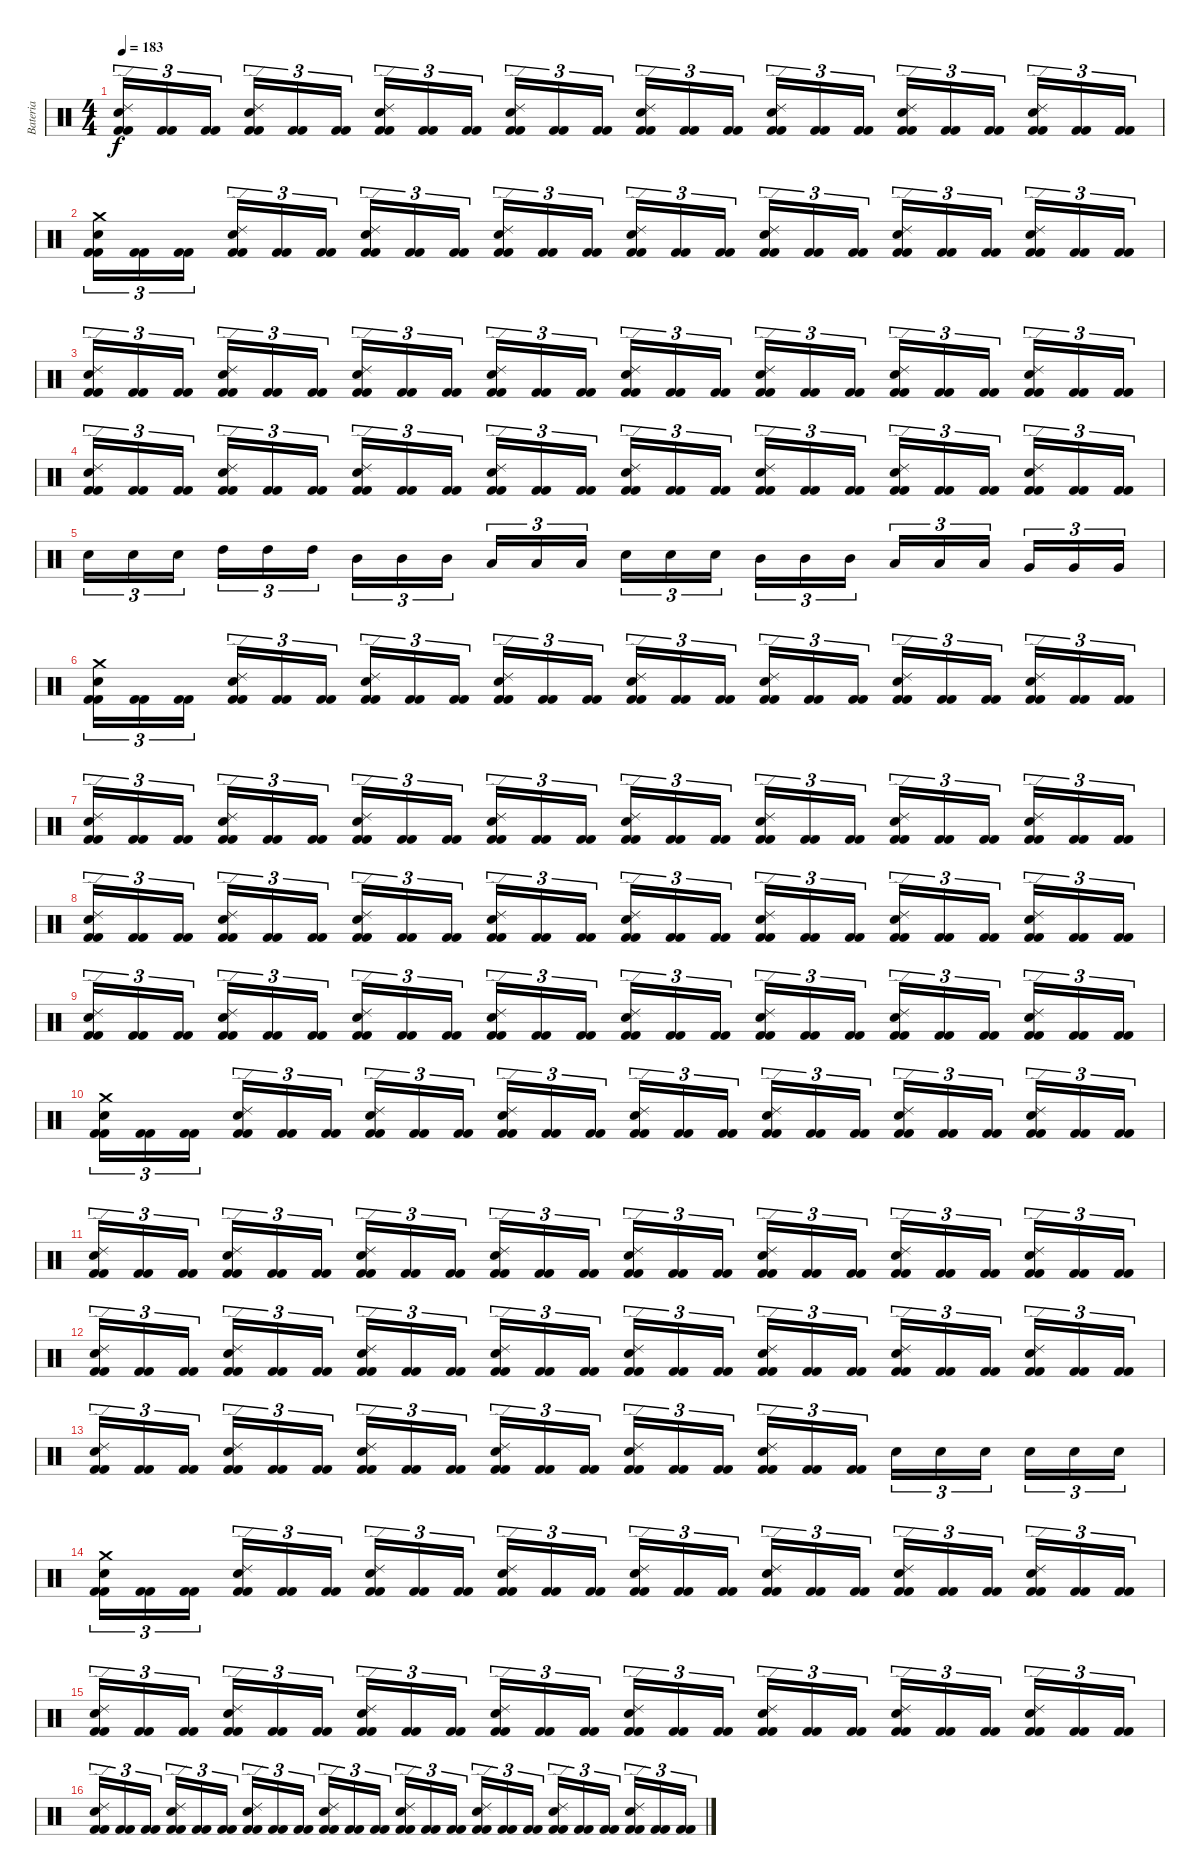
\track ("Bateria" "Bateria") {instrument percussion}
\staff {score}
\articulation defaults
\ts (4 4)
\tempo 183
\clef neutral
\ks c
("Kick (hit) 2" "Kick (hit) 2" "Snare (hit) 2" "Ride (edge) 2").16{tu (3 2) dy f} ("Kick (hit) 2" "Kick (hit) 2").16{tu (3 2)} ("Kick (hit) 2" "Kick (hit) 2").16{tu (3 2)} ("Kick (hit) 2" "Kick (hit) 2" "Snare (hit) 2" "Ride (edge) 2").16{tu (3 2)} ("Kick (hit) 2" "Kick (hit) 2").16{tu (3 2)} ("Kick (hit) 2" "Kick (hit) 2").16{tu (3 2)} ("Kick (hit) 2" "Kick (hit) 2" "Snare (hit) 2" "Ride (edge) 2").16{tu (3 2)} ("Kick (hit) 2" "Kick (hit) 2").16{tu (3 2)} ("Kick (hit) 2" "Kick (hit) 2").16{tu (3 2)} ("Kick (hit) 2" "Kick (hit) 2" "Snare (hit) 2" "Ride (edge) 2").16{tu (3 2)} ("Kick (hit) 2" "Kick (hit) 2").16{tu (3 2)} ("Kick (hit) 2" "Kick (hit) 2").16{tu (3 2)} ("Kick (hit) 2" "Kick (hit) 2" "Snare (hit) 2" "Ride (edge) 2").16{tu (3 2)} ("Kick (hit) 2" "Kick (hit) 2").16{tu (3 2)} ("Kick (hit) 2" "Kick (hit) 2").16{tu (3 2)} ("Kick (hit) 2" "Kick (hit) 2" "Snare (hit) 2" "Ride (edge) 2").16{tu (3 2)} ("Kick (hit) 2" "Kick (hit) 2").16{tu (3 2)} ("Kick (hit) 2" "Kick (hit) 2").16{tu (3 2)} ("Kick (hit) 2" "Kick (hit) 2" "Snare (hit) 2" "Ride (edge) 2").16{tu (3 2)} ("Kick (hit) 2" "Kick (hit) 2").16{tu (3 2)} ("Kick (hit) 2" "Kick (hit) 2").16{tu (3 2)} ("Kick (hit) 2" "Kick (hit) 2" "Snare (hit) 2" "Ride (edge) 2").16{tu (3 2)} ("Kick (hit) 2" "Kick (hit) 2").16{tu (3 2)} ("Kick (hit) 2" "Kick (hit) 2").16{tu (3 2)} |
("Kick (hit) 2" "Kick (hit) 2" "Snare (hit) 2" "Crash medium (hit)").16{tu (3 2)} ("Kick (hit) 2" "Kick (hit) 2").16{tu (3 2)} ("Kick (hit) 2" "Kick (hit) 2").16{tu (3 2)} ("Kick (hit) 2" "Kick (hit) 2" "Snare (hit) 2" "Ride (edge) 2").16{tu (3 2)} ("Kick (hit) 2" "Kick (hit) 2").16{tu (3 2)} ("Kick (hit) 2" "Kick (hit) 2").16{tu (3 2)} ("Kick (hit) 2" "Kick (hit) 2" "Snare (hit) 2" "Ride (edge) 2").16{tu (3 2)} ("Kick (hit) 2" "Kick (hit) 2").16{tu (3 2)} ("Kick (hit) 2" "Kick (hit) 2").16{tu (3 2)} ("Kick (hit) 2" "Kick (hit) 2" "Snare (hit) 2" "Ride (edge) 2").16{tu (3 2)} ("Kick (hit) 2" "Kick (hit) 2").16{tu (3 2)} ("Kick (hit) 2" "Kick (hit) 2").16{tu (3 2)} ("Kick (hit) 2" "Kick (hit) 2" "Snare (hit) 2" "Ride (edge) 2").16{tu (3 2)} ("Kick (hit) 2" "Kick (hit) 2").16{tu (3 2)} ("Kick (hit) 2" "Kick (hit) 2").16{tu (3 2)} ("Kick (hit) 2" "Kick (hit) 2" "Snare (hit) 2" "Ride (edge) 2").16{tu (3 2)} ("Kick (hit) 2" "Kick (hit) 2").16{tu (3 2)} ("Kick (hit) 2" "Kick (hit) 2").16{tu (3 2)} ("Kick (hit) 2" "Kick (hit) 2" "Snare (hit) 2" "Ride (edge) 2").16{tu (3 2)} ("Kick (hit) 2" "Kick (hit) 2").16{tu (3 2)} ("Kick (hit) 2" "Kick (hit) 2").16{tu (3 2)} ("Kick (hit) 2" "Kick (hit) 2" "Snare (hit) 2" "Ride (edge) 2").16{tu (3 2)} ("Kick (hit) 2" "Kick (hit) 2").16{tu (3 2)} ("Kick (hit) 2" "Kick (hit) 2").16{tu (3 2)} |
("Kick (hit) 2" "Kick (hit) 2" "Snare (hit) 2" "Ride (edge) 2").16{tu (3 2)} ("Kick (hit) 2" "Kick (hit) 2").16{tu (3 2)} ("Kick (hit) 2" "Kick (hit) 2").16{tu (3 2)} ("Kick (hit) 2" "Kick (hit) 2" "Snare (hit) 2" "Ride (edge) 2").16{tu (3 2)} ("Kick (hit) 2" "Kick (hit) 2").16{tu (3 2)} ("Kick (hit) 2" "Kick (hit) 2").16{tu (3 2)} ("Kick (hit) 2" "Kick (hit) 2" "Snare (hit) 2" "Ride (edge) 2").16{tu (3 2)} ("Kick (hit) 2" "Kick (hit) 2").16{tu (3 2)} ("Kick (hit) 2" "Kick (hit) 2").16{tu (3 2)} ("Kick (hit) 2" "Kick (hit) 2" "Snare (hit) 2" "Ride (edge) 2").16{tu (3 2)} ("Kick (hit) 2" "Kick (hit) 2").16{tu (3 2)} ("Kick (hit) 2" "Kick (hit) 2").16{tu (3 2)} ("Kick (hit) 2" "Kick (hit) 2" "Snare (hit) 2" "Ride (edge) 2").16{tu (3 2)} ("Kick (hit) 2" "Kick (hit) 2").16{tu (3 2)} ("Kick (hit) 2" "Kick (hit) 2").16{tu (3 2)} ("Kick (hit) 2" "Kick (hit) 2" "Snare (hit) 2" "Ride (edge) 2").16{tu (3 2)} ("Kick (hit) 2" "Kick (hit) 2").16{tu (3 2)} ("Kick (hit) 2" "Kick (hit) 2").16{tu (3 2)} ("Kick (hit) 2" "Kick (hit) 2" "Snare (hit) 2" "Ride (edge) 2").16{tu (3 2)} ("Kick (hit) 2" "Kick (hit) 2").16{tu (3 2)} ("Kick (hit) 2" "Kick (hit) 2").16{tu (3 2)} ("Kick (hit) 2" "Kick (hit) 2" "Snare (hit) 2" "Ride (edge) 2").16{tu (3 2)} ("Kick (hit) 2" "Kick (hit) 2").16{tu (3 2)} ("Kick (hit) 2" "Kick (hit) 2").16{tu (3 2)} |
("Kick (hit) 2" "Kick (hit) 2" "Snare (hit) 2" "Ride (edge) 2").16{tu (3 2)} ("Kick (hit) 2" "Kick (hit) 2").16{tu (3 2)} ("Kick (hit) 2" "Kick (hit) 2").16{tu (3 2)} ("Kick (hit) 2" "Kick (hit) 2" "Snare (hit) 2" "Ride (edge) 2").16{tu (3 2)} ("Kick (hit) 2" "Kick (hit) 2").16{tu (3 2)} ("Kick (hit) 2" "Kick (hit) 2").16{tu (3 2)} ("Kick (hit) 2" "Kick (hit) 2" "Snare (hit) 2" "Ride (edge) 2").16{tu (3 2)} ("Kick (hit) 2" "Kick (hit) 2").16{tu (3 2)} ("Kick (hit) 2" "Kick (hit) 2").16{tu (3 2)} ("Kick (hit) 2" "Kick (hit) 2" "Snare (hit) 2" "Ride (edge) 2").16{tu (3 2)} ("Kick (hit) 2" "Kick (hit) 2").16{tu (3 2)} ("Kick (hit) 2" "Kick (hit) 2").16{tu (3 2)} ("Kick (hit) 2" "Kick (hit) 2" "Snare (hit) 2" "Ride (edge) 2").16{tu (3 2)} ("Kick (hit) 2" "Kick (hit) 2").16{tu (3 2)} ("Kick (hit) 2" "Kick (hit) 2").16{tu (3 2)} ("Kick (hit) 2" "Kick (hit) 2" "Snare (hit) 2" "Ride (edge) 2").16{tu (3 2)} ("Kick (hit) 2" "Kick (hit) 2").16{tu (3 2)} ("Kick (hit) 2" "Kick (hit) 2").16{tu (3 2)} ("Kick (hit) 2" "Kick (hit) 2" "Snare (hit) 2" "Ride (edge) 2").16{tu (3 2)} ("Kick (hit) 2" "Kick (hit) 2").16{tu (3 2)} ("Kick (hit) 2" "Kick (hit) 2").16{tu (3 2)} ("Kick (hit) 2" "Kick (hit) 2" "Snare (hit) 2" "Ride (edge) 2").16{tu (3 2)} ("Kick (hit) 2" "Kick (hit) 2").16{tu (3 2)} ("Kick (hit) 2" "Kick (hit) 2").16{tu (3 2)} |
"Snare (hit) 2".16{tu (3 2)} "Snare (hit) 2".16{tu (3 2)} "Snare (hit) 2".16{tu (3 2)} "High Tom (hit)".16{tu (3 2)} "High Tom (hit)".16{tu (3 2)} "High Tom (hit)".16{tu (3 2)} "Mid Tom (hit)".16{tu (3 2)} "Mid Tom (hit)".16{tu (3 2)} "Mid Tom (hit)".16{tu (3 2)} "Low Tom (hit)".16{tu (3 2)} "Low Tom (hit)".16{tu (3 2)} "Low Tom (hit)".16{tu (3 2)} "Snare (hit) 2".16{tu (3 2)} "Snare (hit) 2".16{tu (3 2)} "Snare (hit) 2".16{tu (3 2)} "Mid Tom (hit)".16{tu (3 2)} "Mid Tom (hit)".16{tu (3 2)} "Mid Tom (hit)".16{tu (3 2)} "Low Tom (hit)".16{tu (3 2)} "Low Tom (hit)".16{tu (3 2)} "Low Tom (hit)".16{tu (3 2)} "Very Low Tom (hit)".16{tu (3 2)} "Very Low Tom (hit)".16{tu (3 2)} "Very Low Tom (hit)".16{tu (3 2)} |
("Kick (hit) 2" "Kick (hit) 2" "Snare (hit) 2" "Crash medium (hit)").16{tu (3 2)} ("Kick (hit) 2" "Kick (hit) 2").16{tu (3 2)} ("Kick (hit) 2" "Kick (hit) 2").16{tu (3 2)} ("Kick (hit) 2" "Kick (hit) 2" "Snare (hit) 2" "Ride (edge) 2").16{tu (3 2)} ("Kick (hit) 2" "Kick (hit) 2").16{tu (3 2)} ("Kick (hit) 2" "Kick (hit) 2").16{tu (3 2)} ("Kick (hit) 2" "Kick (hit) 2" "Snare (hit) 2" "Ride (edge) 2").16{tu (3 2)} ("Kick (hit) 2" "Kick (hit) 2").16{tu (3 2)} ("Kick (hit) 2" "Kick (hit) 2").16{tu (3 2)} ("Kick (hit) 2" "Kick (hit) 2" "Snare (hit) 2" "Ride (edge) 2").16{tu (3 2)} ("Kick (hit) 2" "Kick (hit) 2").16{tu (3 2)} ("Kick (hit) 2" "Kick (hit) 2").16{tu (3 2)} ("Kick (hit) 2" "Kick (hit) 2" "Snare (hit) 2" "Ride (edge) 2").16{tu (3 2)} ("Kick (hit) 2" "Kick (hit) 2").16{tu (3 2)} ("Kick (hit) 2" "Kick (hit) 2").16{tu (3 2)} ("Kick (hit) 2" "Kick (hit) 2" "Snare (hit) 2" "Ride (edge) 2").16{tu (3 2)} ("Kick (hit) 2" "Kick (hit) 2").16{tu (3 2)} ("Kick (hit) 2" "Kick (hit) 2").16{tu (3 2)} ("Kick (hit) 2" "Kick (hit) 2" "Snare (hit) 2" "Ride (edge) 2").16{tu (3 2)} ("Kick (hit) 2" "Kick (hit) 2").16{tu (3 2)} ("Kick (hit) 2" "Kick (hit) 2").16{tu (3 2)} ("Kick (hit) 2" "Kick (hit) 2" "Snare (hit) 2" "Ride (edge) 2").16{tu (3 2)} ("Kick (hit) 2" "Kick (hit) 2").16{tu (3 2)} ("Kick (hit) 2" "Kick (hit) 2").16{tu (3 2)} |
("Kick (hit) 2" "Kick (hit) 2" "Snare (hit) 2" "Ride (edge) 2").16{tu (3 2)} ("Kick (hit) 2" "Kick (hit) 2").16{tu (3 2)} ("Kick (hit) 2" "Kick (hit) 2").16{tu (3 2)} ("Kick (hit) 2" "Kick (hit) 2" "Snare (hit) 2" "Ride (edge) 2").16{tu (3 2)} ("Kick (hit) 2" "Kick (hit) 2").16{tu (3 2)} ("Kick (hit) 2" "Kick (hit) 2").16{tu (3 2)} ("Kick (hit) 2" "Kick (hit) 2" "Snare (hit) 2" "Ride (edge) 2").16{tu (3 2)} ("Kick (hit) 2" "Kick (hit) 2").16{tu (3 2)} ("Kick (hit) 2" "Kick (hit) 2").16{tu (3 2)} ("Kick (hit) 2" "Kick (hit) 2" "Snare (hit) 2" "Ride (edge) 2").16{tu (3 2)} ("Kick (hit) 2" "Kick (hit) 2").16{tu (3 2)} ("Kick (hit) 2" "Kick (hit) 2").16{tu (3 2)} ("Kick (hit) 2" "Kick (hit) 2" "Snare (hit) 2" "Ride (edge) 2").16{tu (3 2)} ("Kick (hit) 2" "Kick (hit) 2").16{tu (3 2)} ("Kick (hit) 2" "Kick (hit) 2").16{tu (3 2)} ("Kick (hit) 2" "Kick (hit) 2" "Snare (hit) 2" "Ride (edge) 2").16{tu (3 2)} ("Kick (hit) 2" "Kick (hit) 2").16{tu (3 2)} ("Kick (hit) 2" "Kick (hit) 2").16{tu (3 2)} ("Kick (hit) 2" "Kick (hit) 2" "Snare (hit) 2" "Ride (edge) 2").16{tu (3 2)} ("Kick (hit) 2" "Kick (hit) 2").16{tu (3 2)} ("Kick (hit) 2" "Kick (hit) 2").16{tu (3 2)} ("Kick (hit) 2" "Kick (hit) 2" "Snare (hit) 2" "Ride (edge) 2").16{tu (3 2)} ("Kick (hit) 2" "Kick (hit) 2").16{tu (3 2)} ("Kick (hit) 2" "Kick (hit) 2").16{tu (3 2)} |
("Kick (hit) 2" "Kick (hit) 2" "Snare (hit) 2" "Ride (edge) 2").16{tu (3 2)} ("Kick (hit) 2" "Kick (hit) 2").16{tu (3 2)} ("Kick (hit) 2" "Kick (hit) 2").16{tu (3 2)} ("Kick (hit) 2" "Kick (hit) 2" "Snare (hit) 2" "Ride (edge) 2").16{tu (3 2)} ("Kick (hit) 2" "Kick (hit) 2").16{tu (3 2)} ("Kick (hit) 2" "Kick (hit) 2").16{tu (3 2)} ("Kick (hit) 2" "Kick (hit) 2" "Snare (hit) 2" "Ride (edge) 2").16{tu (3 2)} ("Kick (hit) 2" "Kick (hit) 2").16{tu (3 2)} ("Kick (hit) 2" "Kick (hit) 2").16{tu (3 2)} ("Kick (hit) 2" "Kick (hit) 2" "Snare (hit) 2" "Ride (edge) 2").16{tu (3 2)} ("Kick (hit) 2" "Kick (hit) 2").16{tu (3 2)} ("Kick (hit) 2" "Kick (hit) 2").16{tu (3 2)} ("Kick (hit) 2" "Kick (hit) 2" "Snare (hit) 2" "Ride (edge) 2").16{tu (3 2)} ("Kick (hit) 2" "Kick (hit) 2").16{tu (3 2)} ("Kick (hit) 2" "Kick (hit) 2").16{tu (3 2)} ("Kick (hit) 2" "Kick (hit) 2" "Snare (hit) 2" "Ride (edge) 2").16{tu (3 2)} ("Kick (hit) 2" "Kick (hit) 2").16{tu (3 2)} ("Kick (hit) 2" "Kick (hit) 2").16{tu (3 2)} ("Kick (hit) 2" "Kick (hit) 2" "Snare (hit) 2" "Ride (edge) 2").16{tu (3 2)} ("Kick (hit) 2" "Kick (hit) 2").16{tu (3 2)} ("Kick (hit) 2" "Kick (hit) 2").16{tu (3 2)} ("Kick (hit) 2" "Kick (hit) 2" "Snare (hit) 2" "Ride (edge) 2").16{tu (3 2)} ("Kick (hit) 2" "Kick (hit) 2").16{tu (3 2)} ("Kick (hit) 2" "Kick (hit) 2").16{tu (3 2)} |
("Kick (hit) 2" "Kick (hit) 2" "Snare (hit) 2" "Ride (edge) 2").16{tu (3 2)} ("Kick (hit) 2" "Kick (hit) 2").16{tu (3 2)} ("Kick (hit) 2" "Kick (hit) 2").16{tu (3 2)} ("Kick (hit) 2" "Kick (hit) 2" "Snare (hit) 2" "Ride (edge) 2").16{tu (3 2)} ("Kick (hit) 2" "Kick (hit) 2").16{tu (3 2)} ("Kick (hit) 2" "Kick (hit) 2").16{tu (3 2)} ("Kick (hit) 2" "Kick (hit) 2" "Snare (hit) 2" "Ride (edge) 2").16{tu (3 2)} ("Kick (hit) 2" "Kick (hit) 2").16{tu (3 2)} ("Kick (hit) 2" "Kick (hit) 2").16{tu (3 2)} ("Kick (hit) 2" "Kick (hit) 2" "Snare (hit) 2" "Ride (edge) 2").16{tu (3 2)} ("Kick (hit) 2" "Kick (hit) 2").16{tu (3 2)} ("Kick (hit) 2" "Kick (hit) 2").16{tu (3 2)} ("Kick (hit) 2" "Kick (hit) 2" "Snare (hit) 2" "Ride (edge) 2").16{tu (3 2)} ("Kick (hit) 2" "Kick (hit) 2").16{tu (3 2)} ("Kick (hit) 2" "Kick (hit) 2").16{tu (3 2)} ("Kick (hit) 2" "Kick (hit) 2" "Snare (hit) 2" "Ride (edge) 2").16{tu (3 2)} ("Kick (hit) 2" "Kick (hit) 2").16{tu (3 2)} ("Kick (hit) 2" "Kick (hit) 2").16{tu (3 2)} ("Kick (hit) 2" "Kick (hit) 2" "Snare (hit) 2" "Ride (edge) 2").16{tu (3 2)} ("Kick (hit) 2" "Kick (hit) 2").16{tu (3 2)} ("Kick (hit) 2" "Kick (hit) 2").16{tu (3 2)} ("Kick (hit) 2" "Kick (hit) 2" "Snare (hit) 2" "Ride (edge) 2").16{tu (3 2)} ("Kick (hit) 2" "Kick (hit) 2").16{tu (3 2)} ("Kick (hit) 2" "Kick (hit) 2").16{tu (3 2)} |
("Kick (hit) 2" "Kick (hit) 2" "Snare (hit) 2" "Crash medium (hit)").16{tu (3 2)} ("Kick (hit) 2" "Kick (hit) 2").16{tu (3 2)} ("Kick (hit) 2" "Kick (hit) 2").16{tu (3 2)} ("Kick (hit) 2" "Kick (hit) 2" "Snare (hit) 2" "Ride (edge) 2").16{tu (3 2)} ("Kick (hit) 2" "Kick (hit) 2").16{tu (3 2)} ("Kick (hit) 2" "Kick (hit) 2").16{tu (3 2)} ("Kick (hit) 2" "Kick (hit) 2" "Snare (hit) 2" "Ride (edge) 2").16{tu (3 2)} ("Kick (hit) 2" "Kick (hit) 2").16{tu (3 2)} ("Kick (hit) 2" "Kick (hit) 2").16{tu (3 2)} ("Kick (hit) 2" "Kick (hit) 2" "Snare (hit) 2" "Ride (edge) 2").16{tu (3 2)} ("Kick (hit) 2" "Kick (hit) 2").16{tu (3 2)} ("Kick (hit) 2" "Kick (hit) 2").16{tu (3 2)} ("Kick (hit) 2" "Kick (hit) 2" "Snare (hit) 2" "Ride (edge) 2").16{tu (3 2)} ("Kick (hit) 2" "Kick (hit) 2").16{tu (3 2)} ("Kick (hit) 2" "Kick (hit) 2").16{tu (3 2)} ("Kick (hit) 2" "Kick (hit) 2" "Snare (hit) 2" "Ride (edge) 2").16{tu (3 2)} ("Kick (hit) 2" "Kick (hit) 2").16{tu (3 2)} ("Kick (hit) 2" "Kick (hit) 2").16{tu (3 2)} ("Kick (hit) 2" "Kick (hit) 2" "Snare (hit) 2" "Ride (edge) 2").16{tu (3 2)} ("Kick (hit) 2" "Kick (hit) 2").16{tu (3 2)} ("Kick (hit) 2" "Kick (hit) 2").16{tu (3 2)} ("Kick (hit) 2" "Kick (hit) 2" "Snare (hit) 2" "Ride (edge) 2").16{tu (3 2)} ("Kick (hit) 2" "Kick (hit) 2").16{tu (3 2)} ("Kick (hit) 2" "Kick (hit) 2").16{tu (3 2)} |
("Kick (hit) 2" "Kick (hit) 2" "Snare (hit) 2" "Ride (edge) 2").16{tu (3 2)} ("Kick (hit) 2" "Kick (hit) 2").16{tu (3 2)} ("Kick (hit) 2" "Kick (hit) 2").16{tu (3 2)} ("Kick (hit) 2" "Kick (hit) 2" "Snare (hit) 2" "Ride (edge) 2").16{tu (3 2)} ("Kick (hit) 2" "Kick (hit) 2").16{tu (3 2)} ("Kick (hit) 2" "Kick (hit) 2").16{tu (3 2)} ("Kick (hit) 2" "Kick (hit) 2" "Snare (hit) 2" "Ride (edge) 2").16{tu (3 2)} ("Kick (hit) 2" "Kick (hit) 2").16{tu (3 2)} ("Kick (hit) 2" "Kick (hit) 2").16{tu (3 2)} ("Kick (hit) 2" "Kick (hit) 2" "Snare (hit) 2" "Ride (edge) 2").16{tu (3 2)} ("Kick (hit) 2" "Kick (hit) 2").16{tu (3 2)} ("Kick (hit) 2" "Kick (hit) 2").16{tu (3 2)} ("Kick (hit) 2" "Kick (hit) 2" "Snare (hit) 2" "Ride (edge) 2").16{tu (3 2)} ("Kick (hit) 2" "Kick (hit) 2").16{tu (3 2)} ("Kick (hit) 2" "Kick (hit) 2").16{tu (3 2)} ("Kick (hit) 2" "Kick (hit) 2" "Snare (hit) 2" "Ride (edge) 2").16{tu (3 2)} ("Kick (hit) 2" "Kick (hit) 2").16{tu (3 2)} ("Kick (hit) 2" "Kick (hit) 2").16{tu (3 2)} ("Kick (hit) 2" "Kick (hit) 2" "Snare (hit) 2" "Ride (edge) 2").16{tu (3 2)} ("Kick (hit) 2" "Kick (hit) 2").16{tu (3 2)} ("Kick (hit) 2" "Kick (hit) 2").16{tu (3 2)} ("Kick (hit) 2" "Kick (hit) 2" "Snare (hit) 2" "Ride (edge) 2").16{tu (3 2)} ("Kick (hit) 2" "Kick (hit) 2").16{tu (3 2)} ("Kick (hit) 2" "Kick (hit) 2").16{tu (3 2)} |
("Kick (hit) 2" "Kick (hit) 2" "Snare (hit) 2" "Ride (edge) 2").16{tu (3 2)} ("Kick (hit) 2" "Kick (hit) 2").16{tu (3 2)} ("Kick (hit) 2" "Kick (hit) 2").16{tu (3 2)} ("Kick (hit) 2" "Kick (hit) 2" "Snare (hit) 2" "Ride (edge) 2").16{tu (3 2)} ("Kick (hit) 2" "Kick (hit) 2").16{tu (3 2)} ("Kick (hit) 2" "Kick (hit) 2").16{tu (3 2)} ("Kick (hit) 2" "Kick (hit) 2" "Snare (hit) 2" "Ride (edge) 2").16{tu (3 2)} ("Kick (hit) 2" "Kick (hit) 2").16{tu (3 2)} ("Kick (hit) 2" "Kick (hit) 2").16{tu (3 2)} ("Kick (hit) 2" "Kick (hit) 2" "Snare (hit) 2" "Ride (edge) 2").16{tu (3 2)} ("Kick (hit) 2" "Kick (hit) 2").16{tu (3 2)} ("Kick (hit) 2" "Kick (hit) 2").16{tu (3 2)} ("Kick (hit) 2" "Kick (hit) 2" "Snare (hit) 2" "Ride (edge) 2").16{tu (3 2)} ("Kick (hit) 2" "Kick (hit) 2").16{tu (3 2)} ("Kick (hit) 2" "Kick (hit) 2").16{tu (3 2)} ("Kick (hit) 2" "Kick (hit) 2" "Snare (hit) 2" "Ride (edge) 2").16{tu (3 2)} ("Kick (hit) 2" "Kick (hit) 2").16{tu (3 2)} ("Kick (hit) 2" "Kick (hit) 2").16{tu (3 2)} ("Kick (hit) 2" "Kick (hit) 2" "Snare (hit) 2" "Ride (edge) 2").16{tu (3 2)} ("Kick (hit) 2" "Kick (hit) 2").16{tu (3 2)} ("Kick (hit) 2" "Kick (hit) 2").16{tu (3 2)} ("Kick (hit) 2" "Kick (hit) 2" "Snare (hit) 2" "Ride (edge) 2").16{tu (3 2)} ("Kick (hit) 2" "Kick (hit) 2").16{tu (3 2)} ("Kick (hit) 2" "Kick (hit) 2").16{tu (3 2)} |
("Kick (hit) 2" "Kick (hit) 2" "Snare (hit) 2" "Ride (edge) 2").16{tu (3 2)} ("Kick (hit) 2" "Kick (hit) 2").16{tu (3 2)} ("Kick (hit) 2" "Kick (hit) 2").16{tu (3 2)} ("Kick (hit) 2" "Kick (hit) 2" "Snare (hit) 2" "Ride (edge) 2").16{tu (3 2)} ("Kick (hit) 2" "Kick (hit) 2").16{tu (3 2)} ("Kick (hit) 2" "Kick (hit) 2").16{tu (3 2)} ("Kick (hit) 2" "Kick (hit) 2" "Snare (hit) 2" "Ride (edge) 2").16{tu (3 2)} ("Kick (hit) 2" "Kick (hit) 2").16{tu (3 2)} ("Kick (hit) 2" "Kick (hit) 2").16{tu (3 2)} ("Kick (hit) 2" "Kick (hit) 2" "Snare (hit) 2" "Ride (edge) 2").16{tu (3 2)} ("Kick (hit) 2" "Kick (hit) 2").16{tu (3 2)} ("Kick (hit) 2" "Kick (hit) 2").16{tu (3 2)} ("Kick (hit) 2" "Kick (hit) 2" "Snare (hit) 2" "Ride (edge) 2").16{tu (3 2)} ("Kick (hit) 2" "Kick (hit) 2").16{tu (3 2)} ("Kick (hit) 2" "Kick (hit) 2").16{tu (3 2)} ("Kick (hit) 2" "Kick (hit) 2" "Snare (hit) 2" "Ride (edge) 2").16{tu (3 2)} ("Kick (hit) 2" "Kick (hit) 2").16{tu (3 2)} ("Kick (hit) 2" "Kick (hit) 2").16{tu (3 2)} "Snare (hit) 2".16{tu (3 2)} "Snare (hit) 2".16{tu (3 2)} "Snare (hit) 2".16{tu (3 2)} "Snare (hit) 2".16{tu (3 2)} "Snare (hit) 2".16{tu (3 2)} "Snare (hit) 2".16{tu (3 2)} |
("Kick (hit) 2" "Kick (hit) 2" "Snare (hit) 2" "Crash medium (hit)").16{tu (3 2)} ("Kick (hit) 2" "Kick (hit) 2").16{tu (3 2)} ("Kick (hit) 2" "Kick (hit) 2").16{tu (3 2)} ("Kick (hit) 2" "Kick (hit) 2" "Snare (hit) 2" "Ride (edge) 2").16{tu (3 2)} ("Kick (hit) 2" "Kick (hit) 2").16{tu (3 2)} ("Kick (hit) 2" "Kick (hit) 2").16{tu (3 2)} ("Kick (hit) 2" "Kick (hit) 2" "Snare (hit) 2" "Ride (edge) 2").16{tu (3 2)} ("Kick (hit) 2" "Kick (hit) 2").16{tu (3 2)} ("Kick (hit) 2" "Kick (hit) 2").16{tu (3 2)} ("Kick (hit) 2" "Kick (hit) 2" "Snare (hit) 2" "Ride (edge) 2").16{tu (3 2)} ("Kick (hit) 2" "Kick (hit) 2").16{tu (3 2)} ("Kick (hit) 2" "Kick (hit) 2").16{tu (3 2)} ("Kick (hit) 2" "Kick (hit) 2" "Snare (hit) 2" "Ride (edge) 2").16{tu (3 2)} ("Kick (hit) 2" "Kick (hit) 2").16{tu (3 2)} ("Kick (hit) 2" "Kick (hit) 2").16{tu (3 2)} ("Kick (hit) 2" "Kick (hit) 2" "Snare (hit) 2" "Ride (edge) 2").16{tu (3 2)} ("Kick (hit) 2" "Kick (hit) 2").16{tu (3 2)} ("Kick (hit) 2" "Kick (hit) 2").16{tu (3 2)} ("Kick (hit) 2" "Kick (hit) 2" "Snare (hit) 2" "Ride (edge) 2").16{tu (3 2)} ("Kick (hit) 2" "Kick (hit) 2").16{tu (3 2)} ("Kick (hit) 2" "Kick (hit) 2").16{tu (3 2)} ("Kick (hit) 2" "Kick (hit) 2" "Snare (hit) 2" "Ride (edge) 2").16{tu (3 2)} ("Kick (hit) 2" "Kick (hit) 2").16{tu (3 2)} ("Kick (hit) 2" "Kick (hit) 2").16{tu (3 2)} |
("Kick (hit) 2" "Kick (hit) 2" "Snare (hit) 2" "Ride (edge) 2").16{tu (3 2)} ("Kick (hit) 2" "Kick (hit) 2").16{tu (3 2)} ("Kick (hit) 2" "Kick (hit) 2").16{tu (3 2)} ("Kick (hit) 2" "Kick (hit) 2" "Snare (hit) 2" "Ride (edge) 2").16{tu (3 2)} ("Kick (hit) 2" "Kick (hit) 2").16{tu (3 2)} ("Kick (hit) 2" "Kick (hit) 2").16{tu (3 2)} ("Kick (hit) 2" "Kick (hit) 2" "Snare (hit) 2" "Ride (edge) 2").16{tu (3 2)} ("Kick (hit) 2" "Kick (hit) 2").16{tu (3 2)} ("Kick (hit) 2" "Kick (hit) 2").16{tu (3 2)} ("Kick (hit) 2" "Kick (hit) 2" "Snare (hit) 2" "Ride (edge) 2").16{tu (3 2)} ("Kick (hit) 2" "Kick (hit) 2").16{tu (3 2)} ("Kick (hit) 2" "Kick (hit) 2").16{tu (3 2)} ("Kick (hit) 2" "Kick (hit) 2" "Snare (hit) 2" "Ride (edge) 2").16{tu (3 2)} ("Kick (hit) 2" "Kick (hit) 2").16{tu (3 2)} ("Kick (hit) 2" "Kick (hit) 2").16{tu (3 2)} ("Kick (hit) 2" "Kick (hit) 2" "Snare (hit) 2" "Ride (edge) 2").16{tu (3 2)} ("Kick (hit) 2" "Kick (hit) 2").16{tu (3 2)} ("Kick (hit) 2" "Kick (hit) 2").16{tu (3 2)} ("Kick (hit) 2" "Kick (hit) 2" "Snare (hit) 2" "Ride (edge) 2").16{tu (3 2)} ("Kick (hit) 2" "Kick (hit) 2").16{tu (3 2)} ("Kick (hit) 2" "Kick (hit) 2").16{tu (3 2)} ("Kick (hit) 2" "Kick (hit) 2" "Snare (hit) 2" "Ride (edge) 2").16{tu (3 2)} ("Kick (hit) 2" "Kick (hit) 2").16{tu (3 2)} ("Kick (hit) 2" "Kick (hit) 2").16{tu (3 2)} |
("Kick (hit) 2" "Kick (hit) 2" "Snare (hit) 2" "Ride (edge) 2").16{tu (3 2)} ("Kick (hit) 2" "Kick (hit) 2").16{tu (3 2)} ("Kick (hit) 2" "Kick (hit) 2").16{tu (3 2)} ("Kick (hit) 2" "Kick (hit) 2" "Snare (hit) 2" "Ride (edge) 2").16{tu (3 2)} ("Kick (hit) 2" "Kick (hit) 2").16{tu (3 2)} ("Kick (hit) 2" "Kick (hit) 2").16{tu (3 2)} ("Kick (hit) 2" "Kick (hit) 2" "Snare (hit) 2" "Ride (edge) 2").16{tu (3 2)} ("Kick (hit) 2" "Kick (hit) 2").16{tu (3 2)} ("Kick (hit) 2" "Kick (hit) 2").16{tu (3 2)} ("Kick (hit) 2" "Kick (hit) 2" "Snare (hit) 2" "Ride (edge) 2").16{tu (3 2)} ("Kick (hit) 2" "Kick (hit) 2").16{tu (3 2)} ("Kick (hit) 2" "Kick (hit) 2").16{tu (3 2)} ("Kick (hit) 2" "Kick (hit) 2" "Snare (hit) 2" "Ride (edge) 2").16{tu (3 2)} ("Kick (hit) 2" "Kick (hit) 2").16{tu (3 2)} ("Kick (hit) 2" "Kick (hit) 2").16{tu (3 2)} ("Kick (hit) 2" "Kick (hit) 2" "Snare (hit) 2" "Ride (edge) 2").16{tu (3 2)} ("Kick (hit) 2" "Kick (hit) 2").16{tu (3 2)} ("Kick (hit) 2" "Kick (hit) 2").16{tu (3 2)} ("Kick (hit) 2" "Kick (hit) 2" "Snare (hit) 2" "Ride (edge) 2").16{tu (3 2)} ("Kick (hit) 2" "Kick (hit) 2").16{tu (3 2)} ("Kick (hit) 2" "Kick (hit) 2").16{tu (3 2)} ("Kick (hit) 2" "Kick (hit) 2" "Snare (hit) 2" "Ride (edge) 2").16{tu (3 2)} ("Kick (hit) 2" "Kick (hit) 2").16{tu (3 2)} ("Kick (hit) 2" "Kick (hit) 2").16{tu (3 2)}
